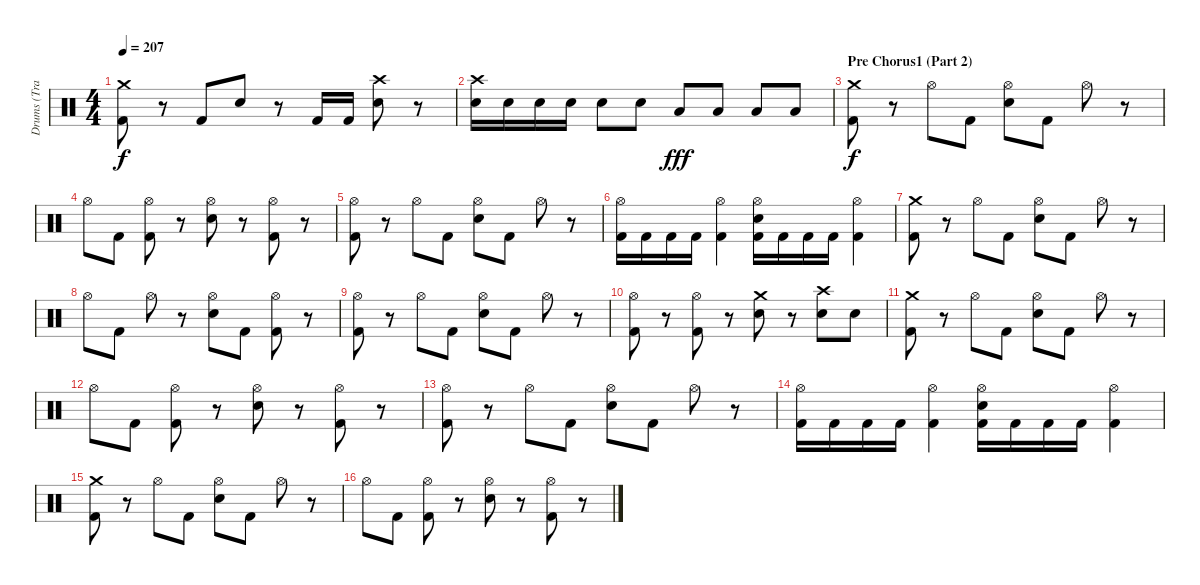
\track ("Drums (Travis)" "Drums (Tra") {instrument percussion}
\staff {score}
\articulation defaults
\ts (4 4)
\tempo 207
\clef neutral
\ks c
("Crash medium (hit)" "Kick (hit) 2").8{dy f} r.8 "Kick (hit) 2".8 "Snare (hit) 2".8 r.8 "Kick (hit) 2".16 "Kick (hit) 2".16 ("Crash high (hit)" "Snare (hit) 2").8 r.8 |
("Crash high (hit)" "Snare (hit) 2").16 "Snare (hit) 2".16 "Snare (hit) 2".16 "Snare (hit) 2".16 "Snare (hit) 2".8 "Snare (hit) 2".8 "Low Tom (hit)".8{dy fff} "Low Tom (hit)".8 "Low Floor Tom (hit)".8 "Low Floor Tom (hit)".8 |
\section ("" "Pre Chorus1 (Part 2)")
("Crash medium (hit)" "Kick (hit) 2").8{dy f} r.8 "Hi-Hat (open)".8 "Kick (hit) 2".8 ("Hi-Hat (open)" "Snare (hit) 2").8 "Kick (hit) 2".8 "Hi-Hat (open)".8 r.8 |
"Hi-Hat (open)".8 "Kick (hit) 2".8 ("Hi-Hat (open)" "Kick (hit) 2").8 r.8 ("Hi-Hat (open)" "Snare (hit) 2").8 r.8 ("Hi-Hat (open)" "Kick (hit) 2").8 r.8 |
("Hi-Hat (open)" "Kick (hit) 2").8 r.8 "Hi-Hat (open)".8 "Kick (hit) 2".8 ("Hi-Hat (open)" "Snare (hit) 2").8 "Kick (hit) 2".8 "Hi-Hat (open)".8 r.8 |
("Hi-Hat (open)" "Kick (hit) 2").16 "Kick (hit) 2".16 "Kick (hit) 2".16 "Kick (hit) 2".16 ("Hi-Hat (open)" "Kick (hit) 2").4 ("Hi-Hat (open)" "Snare (hit) 2" "Kick (hit) 2").16 "Kick (hit) 2".16 "Kick (hit) 2".16 "Kick (hit) 2".16 ("Hi-Hat (open)" "Kick (hit) 2").4 |
("Crash medium (hit)" "Kick (hit) 2").8 r.8 "Hi-Hat (open)".8 "Kick (hit) 2".8 ("Hi-Hat (open)" "Snare (hit) 2").8 "Kick (hit) 2".8 "Hi-Hat (open)".8 r.8 |
"Hi-Hat (open)".8 "Kick (hit) 2".8 "Hi-Hat (open)".8 r.8 ("Hi-Hat (open)" "Snare (hit) 2").8 "Kick (hit) 2".8 ("Hi-Hat (open)" "Kick (hit) 2").8 r.8 |
("Hi-Hat (open)" "Kick (hit) 2").8 r.8 "Hi-Hat (open)".8 "Kick (hit) 2".8 ("Hi-Hat (open)" "Snare (hit) 2").8 "Kick (hit) 2".8 "Hi-Hat (open)".8 r.8 |
("Hi-Hat (open)" "Kick (hit) 2").8 r.8 ("Hi-Hat (open)" "Kick (hit) 2").8 r.8 ("Crash medium (hit)" "Snare (hit) 2").8 r.8 ("Crash high (hit)" "Snare (hit) 2").8 "Snare (hit) 2".8 |
("Crash medium (hit)" "Kick (hit) 2").8 r.8 "Hi-Hat (open)".8 "Kick (hit) 2".8 ("Hi-Hat (open)" "Snare (hit) 2").8 "Kick (hit) 2".8 "Hi-Hat (open)".8 r.8 |
"Hi-Hat (open)".8 "Kick (hit) 2".8 ("Hi-Hat (open)" "Kick (hit) 2").8 r.8 ("Hi-Hat (open)" "Snare (hit) 2").8 r.8 ("Hi-Hat (open)" "Kick (hit) 2").8 r.8 |
("Hi-Hat (open)" "Kick (hit) 2").8 r.8 "Hi-Hat (open)".8 "Kick (hit) 2".8 ("Hi-Hat (open)" "Snare (hit) 2").8 "Kick (hit) 2".8 "Hi-Hat (open)".8 r.8 |
("Hi-Hat (open)" "Kick (hit) 2").16 "Kick (hit) 2".16 "Kick (hit) 2".16 "Kick (hit) 2".16 ("Hi-Hat (open)" "Kick (hit) 2").4 ("Hi-Hat (open)" "Snare (hit) 2" "Kick (hit) 2").16 "Kick (hit) 2".16 "Kick (hit) 2".16 "Kick (hit) 2".16 ("Hi-Hat (open)" "Kick (hit) 2").4 |
("Crash medium (hit)" "Kick (hit) 2").8 r.8 "Hi-Hat (open)".8 "Kick (hit) 2".8 ("Hi-Hat (open)" "Snare (hit) 2").8 "Kick (hit) 2".8 "Hi-Hat (open)".8 r.8 |
"Hi-Hat (open)".8 "Kick (hit) 2".8 ("Hi-Hat (open)" "Kick (hit) 2").8 r.8 ("Hi-Hat (open)" "Snare (hit) 2").8 r.8 ("Hi-Hat (open)" "Kick (hit) 2").8 r.8
